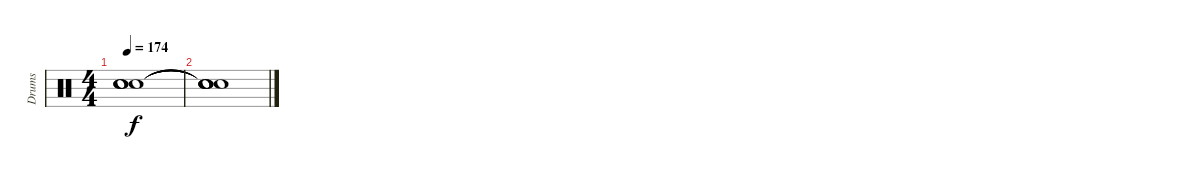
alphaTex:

\track ("Drums" "Drums") {instrument percussion}
\staff {score}
\articulation defaults
\ts (4 4)
\tempo 174
\clef neutral
\ks c
("Snare (hit)"{t} "Snare (hit)"{t} "Snare (hit)"{t} "Snare (hit)"{t}).1{dy f} |
("Snare (hit)"{t} "Snare (hit)"{t} "Snare (hit)"{t} "Snare (hit)"{t} "Snare (hit)"{t}).1
